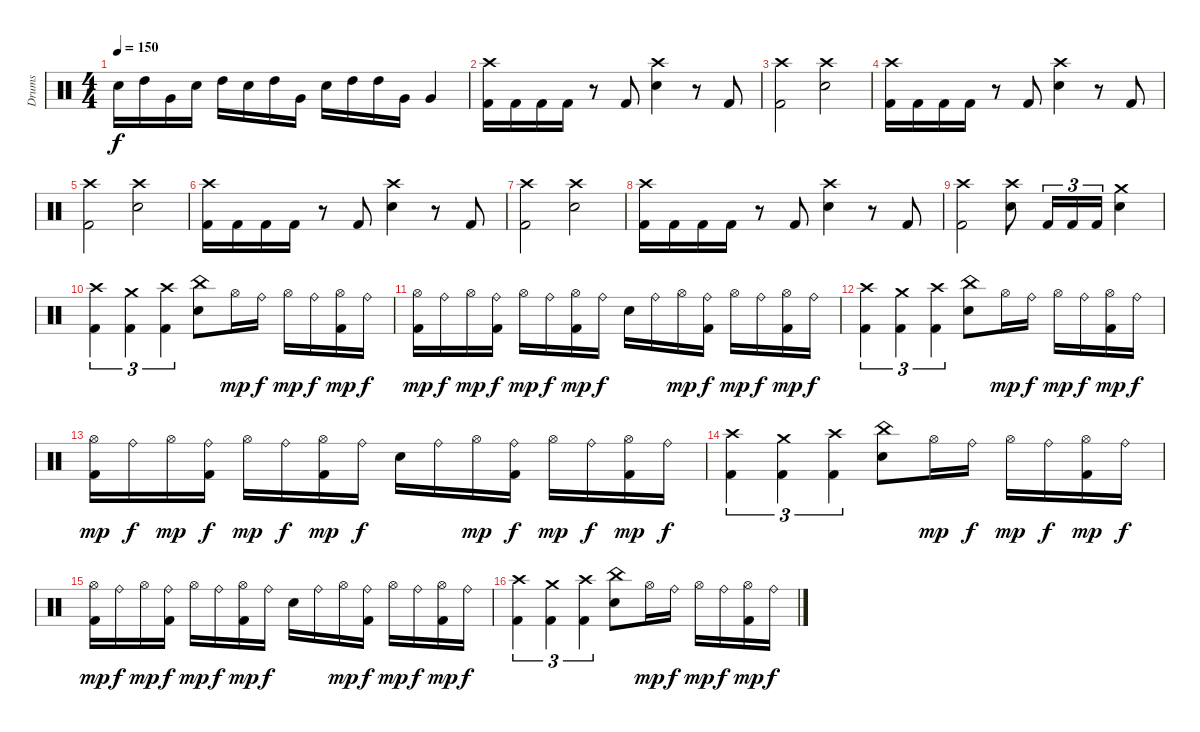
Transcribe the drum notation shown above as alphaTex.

\track ("Drums" "Drums") {instrument percussion}
\staff {score}
\articulation defaults
\ts (4 4)
\tempo 150
\clef neutral
\ks c "Snare (hit) 2".16{dy f} "High Tom (hit)".16 "Very Low Tom (hit)".16 "Snare (hit) 2".16 "High Tom (hit)".16 "Snare (hit) 2".16 "High Tom (hit)".16 "Very Low Tom (hit)".16 "Snare (hit) 2".16 "High Tom (hit)".16 "High Tom (hit)".16 "Very Low Tom (hit)".16 "Very Low Tom (hit)".4
|
("Crash high (hit)" "Kick (hit) 2").16 "Kick (hit) 2".16 "Kick (hit) 2".16 "Kick (hit) 2".16 r.8 "Kick (hit) 2".8 ("Crash high (hit)" "Snare (hit) 2").4 r.8 "Kick (hit) 2".8 |
("Crash high (hit)" "Kick (hit) 2").2 ("Crash high (hit)" "Snare (hit) 2").2 |
("Crash high (hit)" "Kick (hit) 2").16 "Kick (hit) 2".16 "Kick (hit) 2".16 "Kick (hit) 2".16 r.8 "Kick (hit) 2".8 ("Crash high (hit)" "Snare (hit) 2").4 r.8 "Kick (hit) 2".8 |
("Crash high (hit)" "Kick (hit) 2").2 ("Crash high (hit)" "Snare (hit) 2").2 |
("Crash high (hit)" "Kick (hit) 2").16 "Kick (hit) 2".16 "Kick (hit) 2".16 "Kick (hit) 2".16 r.8 "Kick (hit) 2".8 ("Crash high (hit)" "Snare (hit) 2").4 r.8 "Kick (hit) 2".8 |
("Crash high (hit)" "Kick (hit) 2").2 ("Crash high (hit)" "Snare (hit) 2").2 |
("Crash high (hit)" "Kick (hit) 2").16 "Kick (hit) 2".16 "Kick (hit) 2".16 "Kick (hit) 2".16 r.8 "Kick (hit) 2".8 ("Crash high (hit)" "Snare (hit) 2").4 r.8 "Kick (hit) 2".8 |
("Crash high (hit)" "Kick (hit) 2").2 ("Crash high (hit)" "Snare (hit) 2").8 "Kick (hit) 2".16{tu (3 2)} "Kick (hit) 2".16{tu (3 2)} "Kick (hit) 2".16{tu (3 2)} ("Crash medium (hit)" "Snare (hit) 2").4 |
("Crash high (hit)" "Kick (hit) 2").4{tu (3 2)} ("Crash medium (hit)" "Kick (hit) 2").4{tu (3 2)} ("Crash high (hit)" "Kick (hit) 2").4{tu (3 2)} ("China (hit)" "Snare (hit) 2").8 "Hi-Hat (open)".16{dy mp} "Ride (bell)".16{dy f} "Hi-Hat (open)".16{dy mp} "Ride (bell)".16{dy f} ("Hi-Hat (open)" "Kick (hit) 2").16{dy mp} "Ride (bell)".16{dy f} |
("Hi-Hat (open)" "Kick (hit) 2").16{dy mp} "Ride (bell)".16{dy f} "Hi-Hat (open)".16{dy mp} ("Ride (bell)" "Kick (hit) 2").16{dy f} "Hi-Hat (open)".16{dy mp} "Ride (bell)".16{dy f} ("Hi-Hat (open)" "Kick (hit) 2").16{dy mp} "Ride (bell)".16{dy f} "Snare (hit) 2".16 "Ride (bell)".16 "Hi-Hat (open)".16{dy mp} ("Ride (bell)" "Kick (hit) 2").16{dy f} "Hi-Hat (open)".16{dy mp} "Ride (bell)".16{dy f} ("Hi-Hat (open)" "Kick (hit) 2").16{dy mp} "Ride (bell)".16{dy f} |
("Crash high (hit)" "Kick (hit) 2").4{tu (3 2)} ("Crash medium (hit)" "Kick (hit) 2").4{tu (3 2)} ("Crash high (hit)" "Kick (hit) 2").4{tu (3 2)} ("China (hit)" "Snare (hit) 2").8 "Hi-Hat (open)".16{dy mp} "Ride (bell)".16{dy f} "Hi-Hat (open)".16{dy mp} "Ride (bell)".16{dy f} ("Hi-Hat (open)" "Kick (hit) 2").16{dy mp} "Ride (bell)".16{dy f} |
("Hi-Hat (open)" "Kick (hit) 2").16{dy mp} "Ride (bell)".16{dy f} "Hi-Hat (open)".16{dy mp} ("Ride (bell)" "Kick (hit) 2").16{dy f} "Hi-Hat (open)".16{dy mp} "Ride (bell)".16{dy f} ("Hi-Hat (open)" "Kick (hit) 2").16{dy mp} "Ride (bell)".16{dy f} "Snare (hit) 2".16 "Ride (bell)".16 "Hi-Hat (open)".16{dy mp} ("Ride (bell)" "Kick (hit) 2").16{dy f} "Hi-Hat (open)".16{dy mp} "Ride (bell)".16{dy f} ("Hi-Hat (open)" "Kick (hit) 2").16{dy mp} "Ride (bell)".16{dy f} |
("Crash high (hit)" "Kick (hit) 2").4{tu (3 2)} ("Crash medium (hit)" "Kick (hit) 2").4{tu (3 2)} ("Crash high (hit)" "Kick (hit) 2").4{tu (3 2)} ("China (hit)" "Snare (hit) 2").8 "Hi-Hat (open)".16{dy mp} "Ride (bell)".16{dy f} "Hi-Hat (open)".16{dy mp} "Ride (bell)".16{dy f} ("Hi-Hat (open)" "Kick (hit) 2").16{dy mp} "Ride (bell)".16{dy f} |
("Hi-Hat (open)" "Kick (hit) 2").16{dy mp} "Ride (bell)".16{dy f} "Hi-Hat (open)".16{dy mp} ("Ride (bell)" "Kick (hit) 2").16{dy f} "Hi-Hat (open)".16{dy mp} "Ride (bell)".16{dy f} ("Hi-Hat (open)" "Kick (hit) 2").16{dy mp} "Ride (bell)".16{dy f} "Snare (hit) 2".16 "Ride (bell)".16 "Hi-Hat (open)".16{dy mp} ("Ride (bell)" "Kick (hit) 2").16{dy f} "Hi-Hat (open)".16{dy mp} "Ride (bell)".16{dy f} ("Hi-Hat (open)" "Kick (hit) 2").16{dy mp} "Ride (bell)".16{dy f} |
("Crash high (hit)" "Kick (hit) 2").4{tu (3 2)} ("Crash medium (hit)" "Kick (hit) 2").4{tu (3 2)} ("Crash high (hit)" "Kick (hit) 2").4{tu (3 2)} ("China (hit)" "Snare (hit) 2").8 "Hi-Hat (open)".16{dy mp} "Ride (bell)".16{dy f} "Hi-Hat (open)".16{dy mp} "Ride (bell)".16{dy f} ("Hi-Hat (open)" "Kick (hit) 2").16{dy mp} "Ride (bell)".16{dy f}
